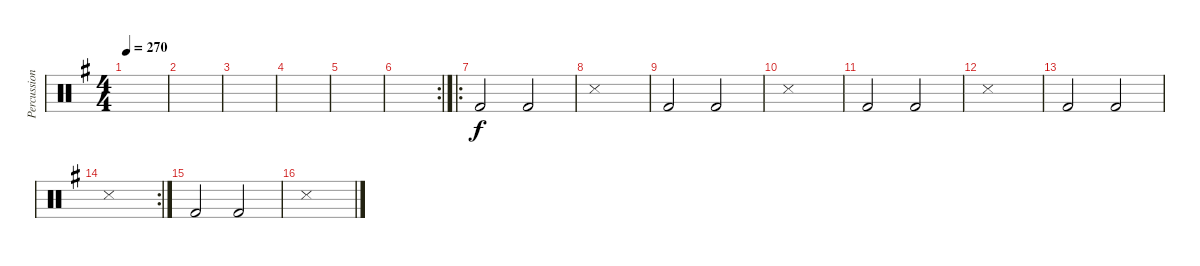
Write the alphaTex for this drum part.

\track ("Percussion" "Percussion") {instrument percussion}
\staff {score}
\articulation defaults
\ts (4 4)
\tempo 270
\clef neutral
\ks g
|
|
|
|
|
\rc 2
|
\ro "Kick (hit) 2".2 "Kick (hit) 2".2
|
"Snare (side stick) 3".1 |
"Kick (hit) 2".2 "Kick (hit) 2".2 |
"Snare (side stick) 3".1 |
"Kick (hit) 2".2 "Kick (hit) 2".2 |
"Snare (side stick) 3".1 |
"Kick (hit) 2".2 "Kick (hit) 2".2 |
\rc 2 "Snare (side stick) 3".1
|
"Kick (hit) 2".2 "Kick (hit) 2".2 |
"Snare (side stick) 3".1
